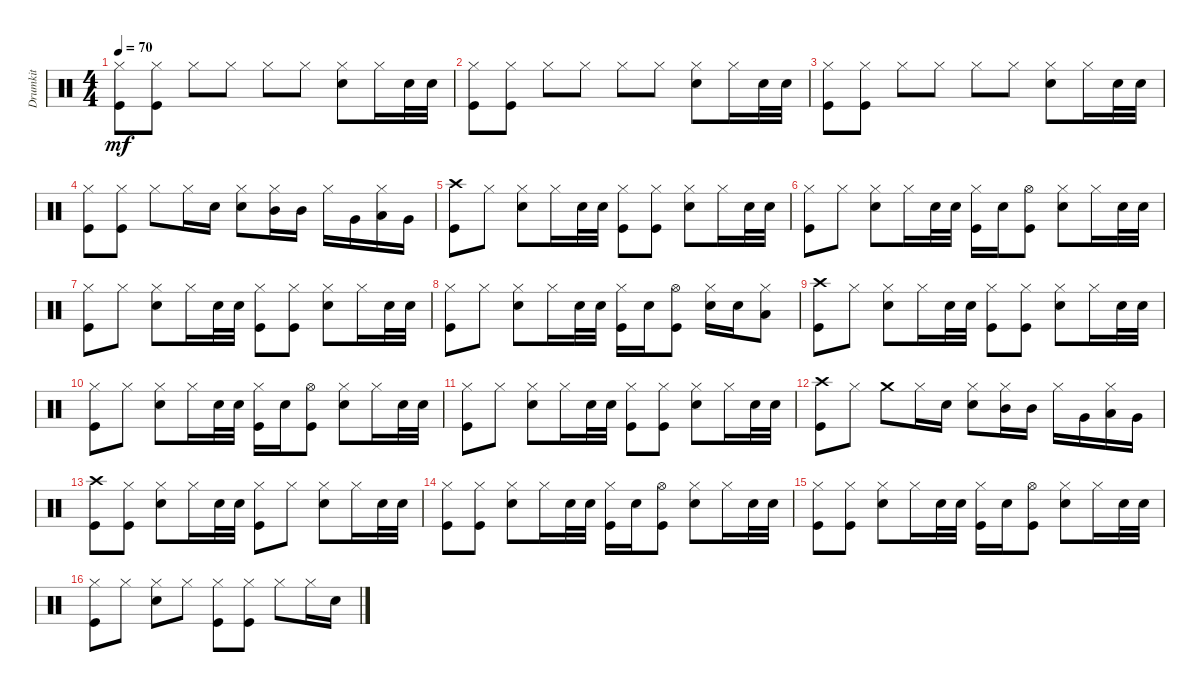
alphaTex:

\track ("Drumkit" "Drumkit") {instrument percussion}
\staff {score}
\articulation defaults
\ts (4 4)
\tempo 70
\clef neutral
\ks c
("Hi-Hat (closed)" "Kick (hit)").8{dy mf} ("Kick (hit)" "Hi-Hat (closed)").8 "Hi-Hat (closed)".8 "Hi-Hat (closed)".8 "Hi-Hat (closed)".8 "Hi-Hat (closed)".8 ("Hi-Hat (closed)" "Snare (hit) 2").8 "Hi-Hat (closed)".16 "Snare (hit) 2".32 "Snare (hit) 2".32 |
("Hi-Hat (closed)" "Kick (hit)").8 ("Kick (hit)" "Hi-Hat (closed)").8 "Hi-Hat (closed)".8 "Hi-Hat (closed)".8 "Hi-Hat (closed)".8 "Hi-Hat (closed)".8 ("Hi-Hat (closed)" "Snare (hit) 2").8 "Hi-Hat (closed)".16 "Snare (hit) 2".32 "Snare (hit) 2".32 |
("Hi-Hat (closed)" "Kick (hit)").8 ("Kick (hit)" "Hi-Hat (closed)").8 "Hi-Hat (closed)".8 "Hi-Hat (closed)".8 "Hi-Hat (closed)".8 "Hi-Hat (closed)".8 ("Hi-Hat (closed)" "Snare (hit) 2").8 "Hi-Hat (closed)".16 "Snare (hit) 2".32 "Snare (hit) 2".32 |
("Hi-Hat (closed)" "Kick (hit)").8 ("Kick (hit)" "Hi-Hat (closed)").8 "Hi-Hat (closed)".8 "Hi-Hat (closed)".16 "Snare (hit) 2".16 ("Hi-Hat (closed)" "Snare (hit) 2").8 ("Hi-Hat (closed)" "Mid Tom (hit)").16 "Mid Tom (hit)".16 "Hi-Hat (closed)".16 "Very Low Tom (hit)".16 ("Hi-Hat (closed)" "Low Tom (hit)").16 "Very Low Tom (hit)".16 |
("Kick (hit)" "Crash high (hit)").8 "Hi-Hat (closed)".8 ("Hi-Hat (closed)" "Snare (hit) 2").8 "Hi-Hat (closed)".16 "Snare (hit) 2".32 "Snare (hit) 2".32 ("Hi-Hat (closed)" "Kick (hit)").8 ("Hi-Hat (closed)" "Kick (hit)").8 ("Hi-Hat (closed)" "Snare (hit) 2").8 "Hi-Hat (closed)".16 "Snare (hit) 2".32 "Snare (hit) 2".32 |
("Kick (hit)" "Hi-Hat (closed)").8 "Hi-Hat (closed)".8 ("Hi-Hat (closed)" "Snare (hit) 2").8 "Hi-Hat (closed)".16 "Snare (hit) 2".32 "Snare (hit) 2".32 ("Hi-Hat (closed)" "Kick (hit)").16 "Snare (hit) 2".16 ("Hi-Hat (open)" "Kick (hit)").8 ("Hi-Hat (closed)" "Snare (hit) 2").8 "Hi-Hat (closed)".16 "Snare (hit) 2".32 "Snare (hit) 2".32 |
("Kick (hit)" "Hi-Hat (closed)").8 "Hi-Hat (closed)".8 ("Hi-Hat (closed)" "Snare (hit) 2").8 "Hi-Hat (closed)".16 "Snare (hit) 2".32 "Snare (hit) 2".32 ("Hi-Hat (closed)" "Kick (hit)").8 ("Hi-Hat (closed)" "Kick (hit)").8 ("Hi-Hat (closed)" "Snare (hit) 2").8 "Hi-Hat (closed)".16 "Snare (hit) 2".32 "Snare (hit) 2".32 |
("Kick (hit)" "Hi-Hat (closed)").8 "Hi-Hat (closed)".8 ("Hi-Hat (closed)" "Snare (hit) 2").8 "Hi-Hat (closed)".16 "Snare (hit) 2".32 "Snare (hit) 2".32 ("Hi-Hat (closed)" "Kick (hit)").16 "Snare (hit) 2".16 ("Hi-Hat (open)" "Kick (hit)").8 ("Hi-Hat (closed)" "Snare (hit) 2").16 "Snare (hit) 2".16 ("Hi-Hat (closed)" "Low Tom (hit)").8 |
("Kick (hit)" "Crash high (hit)").8 "Hi-Hat (closed)".8 ("Hi-Hat (closed)" "Snare (hit) 2").8 "Hi-Hat (closed)".16 "Snare (hit) 2".32 "Snare (hit) 2".32 ("Hi-Hat (closed)" "Kick (hit)").8 ("Hi-Hat (closed)" "Kick (hit)").8 ("Hi-Hat (closed)" "Snare (hit) 2").8 "Hi-Hat (closed)".16 "Snare (hit) 2".32 "Snare (hit) 2".32 |
("Kick (hit)" "Hi-Hat (closed)").8 "Hi-Hat (closed)".8 ("Hi-Hat (closed)" "Snare (hit) 2").8 "Hi-Hat (closed)".16 "Snare (hit) 2".32 "Snare (hit) 2".32 ("Hi-Hat (closed)" "Kick (hit)").16 "Snare (hit) 2".16 ("Hi-Hat (open)" "Kick (hit)").8 ("Hi-Hat (closed)" "Snare (hit) 2").8 "Hi-Hat (closed)".16 "Snare (hit) 2".32 "Snare (hit) 2".32 |
("Kick (hit)" "Hi-Hat (closed)").8 "Hi-Hat (closed)".8 ("Hi-Hat (closed)" "Snare (hit) 2").8 "Hi-Hat (closed)".16 "Snare (hit) 2".32 "Snare (hit) 2".32 ("Hi-Hat (closed)" "Kick (hit)").8 ("Hi-Hat (closed)" "Kick (hit)").8 ("Hi-Hat (closed)" "Snare (hit) 2").8 "Hi-Hat (closed)".16 "Snare (hit) 2".32 "Snare (hit) 2".32 |
("Kick (hit)" "Crash high (hit)").8 "Hi-Hat (closed)".8 "Crash medium (hit)".8 "Hi-Hat (closed)".16 "Snare (hit) 2".16 ("Hi-Hat (closed)" "Snare (hit) 2").8 ("Hi-Hat (closed)" "Mid Tom (hit)").16 "Mid Tom (hit)".16 "Hi-Hat (closed)".16 "Very Low Tom (hit)".16 ("Hi-Hat (closed)" "Low Tom (hit)").16 "Very Low Tom (hit)".16 |
("Kick (hit)" "Crash high (hit)").8 ("Hi-Hat (closed)" "Kick (hit)").8 ("Hi-Hat (closed)" "Snare (hit) 2").8 "Hi-Hat (closed)".16 "Snare (hit) 2".32 "Snare (hit) 2".32 ("Hi-Hat (closed)" "Kick (hit)").8 "Hi-Hat (closed)".8 ("Hi-Hat (closed)" "Snare (hit) 2").8 "Hi-Hat (closed)".16 "Snare (hit) 2".32 "Snare (hit) 2".32 |
("Kick (hit)" "Hi-Hat (closed)").8 ("Hi-Hat (closed)" "Kick (hit)").8 ("Hi-Hat (closed)" "Snare (hit) 2").8 "Hi-Hat (closed)".16 "Snare (hit) 2".32 "Snare (hit) 2".32 ("Hi-Hat (closed)" "Kick (hit)").16 "Snare (hit) 2".16 ("Hi-Hat (open)" "Kick (hit)").8 ("Hi-Hat (closed)" "Snare (hit) 2").8 "Hi-Hat (closed)".16 "Snare (hit) 2".32 "Snare (hit) 2".32 |
("Kick (hit)" "Hi-Hat (closed)").8 ("Hi-Hat (closed)" "Kick (hit)").8 ("Hi-Hat (closed)" "Snare (hit) 2").8 "Hi-Hat (closed)".16 "Snare (hit) 2".32 "Snare (hit) 2".32 ("Hi-Hat (closed)" "Kick (hit)").16 "Snare (hit) 2".16 ("Hi-Hat (open)" "Kick (hit)").8 ("Hi-Hat (closed)" "Snare (hit) 2").8 "Hi-Hat (closed)".16 "Snare (hit) 2".32 "Snare (hit) 2".32 |
("Kick (hit)" "Hi-Hat (closed)").8 "Hi-Hat (closed)".8 ("Hi-Hat (closed)" "Snare (hit) 2").8 "Hi-Hat (closed)".8 ("Hi-Hat (closed)" "Kick (hit)").8 ("Kick (hit)" "Hi-Hat (closed)").8 "Hi-Hat (closed)".8 "Hi-Hat (closed)".16 "Snare (hit) 2".16
